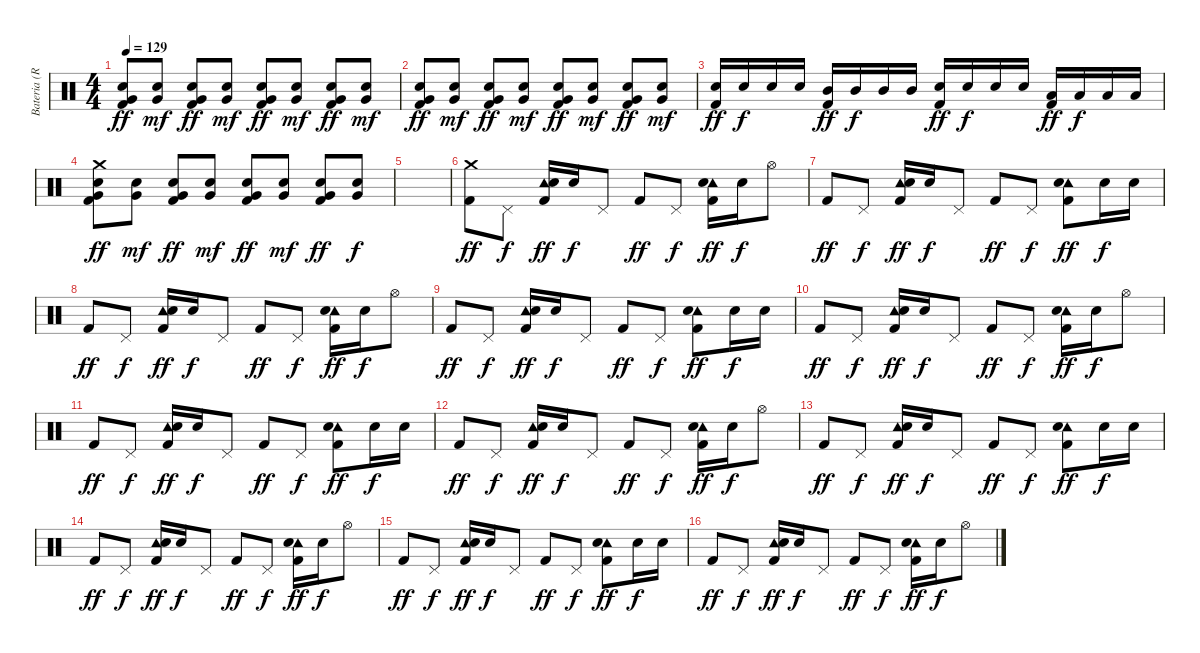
\track ("Bateria (Roy)" "Bateria (R") {instrument percussion}
\staff {score}
\articulation defaults
\ts (4 4)
\tempo 129
\clef neutral
\ks c
("Very Low Tom (hit)" "Electric Snare (hit)" "Kick (hit) 2").8{dy ff} ("Very Low Tom (hit)" "Electric Snare (hit)").8{dy mf} ("Very Low Tom (hit)" "Electric Snare (hit)" "Kick (hit) 2").8{dy ff} ("Very Low Tom (hit)" "Electric Snare (hit)").8{dy mf} ("Very Low Tom (hit)" "Electric Snare (hit)" "Kick (hit) 2").8{dy ff} ("Very Low Tom (hit)" "Electric Snare (hit)").8{dy mf} ("Very Low Tom (hit)" "Electric Snare (hit)" "Kick (hit) 2").8{dy ff} ("Very Low Tom (hit)" "Electric Snare (hit)").8{dy mf} |
("Very Low Tom (hit)" "Electric Snare (hit)" "Kick (hit) 2").8{dy ff} ("Very Low Tom (hit)" "Electric Snare (hit)").8{dy mf} ("Very Low Tom (hit)" "Electric Snare (hit)" "Kick (hit) 2").8{dy ff} ("Very Low Tom (hit)" "Electric Snare (hit)").8{dy mf} ("Very Low Tom (hit)" "Electric Snare (hit)" "Kick (hit) 2").8{dy ff} ("Very Low Tom (hit)" "Electric Snare (hit)").8{dy mf} ("Very Low Tom (hit)" "Electric Snare (hit)" "Kick (hit) 2").8{dy ff} ("Very Low Tom (hit)" "Electric Snare (hit)").8{dy mf} |
("Electric Snare (hit)" "Kick (hit) 2").16{dy ff} "Electric Snare (hit)".16{dy f} "Electric Snare (hit)".16 "Electric Snare (hit)".16 ("Mid Tom (hit)" "Kick (hit) 2").16{dy ff} "Mid Tom (hit)".16{dy f} "Mid Tom (hit)".16 "Mid Tom (hit)".16 ("Electric Snare (hit)" "Kick (hit) 2").16{dy ff} "Electric Snare (hit)".16{dy f} "Electric Snare (hit)".16 "Electric Snare (hit)".16 ("Low Tom (hit)" "Kick (hit) 2").16{dy ff} "Low Tom (hit)".16{dy f} "Low Tom (hit)".16 "Low Tom (hit)".16 |
("Crash medium (hit)" "Very Low Tom (hit)" "Electric Snare (hit)" "Kick (hit) 2").8{dy ff} ("Very Low Tom (hit)" "Electric Snare (hit)").8{dy mf} ("Very Low Tom (hit)" "Electric Snare (hit)" "Kick (hit) 2").8{dy ff} ("Very Low Tom (hit)" "Electric Snare (hit)").8{dy mf} ("Very Low Tom (hit)" "Electric Snare (hit)" "Kick (hit) 2").8{dy ff} ("Very Low Tom (hit)" "Electric Snare (hit)").8{dy mf} ("Very Low Tom (hit)" "Electric Snare (hit)" "Kick (hit) 2").8{dy ff} ("Very Low Tom (hit)" "Electric Snare (hit)").8{dy f} |
|
("Crash medium (hit)" "Kick (hit) 2").8{dy ff} "Pedal Hi-Hat (hit)".8{dy f} ("Tambourine (hit)" "Electric Snare (hit)" "Kick (hit) 2").16{dy ff} "Electric Snare (hit)".16{dy f} "Pedal Hi-Hat (hit)".8 "Kick (hit) 2".8{dy ff} "Pedal Hi-Hat (hit)".8{dy f} ("Tambourine (hit)" "Electric Snare (hit)" "Kick (hit) 2").16{dy ff} "Electric Snare (hit)".16{dy f} "Hi-Hat (open)".8 |
"Kick (hit) 2".8{dy ff} "Pedal Hi-Hat (hit)".8{dy f} ("Tambourine (hit)" "Electric Snare (hit)" "Kick (hit) 2").16{dy ff} "Electric Snare (hit)".16{dy f} "Pedal Hi-Hat (hit)".8 "Kick (hit) 2".8{dy ff} "Pedal Hi-Hat (hit)".8{dy f} ("Tambourine (hit)" "Electric Snare (hit)" "Kick (hit) 2").8{dy ff} "Electric Snare (hit)".16{dy f} "Electric Snare (hit)".16 |
"Kick (hit) 2".8{dy ff} "Pedal Hi-Hat (hit)".8{dy f} ("Tambourine (hit)" "Electric Snare (hit)" "Kick (hit) 2").16{dy ff} "Electric Snare (hit)".16{dy f} "Pedal Hi-Hat (hit)".8 "Kick (hit) 2".8{dy ff} "Pedal Hi-Hat (hit)".8{dy f} ("Tambourine (hit)" "Electric Snare (hit)" "Kick (hit) 2").16{dy ff} "Electric Snare (hit)".16{dy f} "Hi-Hat (open)".8 |
"Kick (hit) 2".8{dy ff} "Pedal Hi-Hat (hit)".8{dy f} ("Tambourine (hit)" "Electric Snare (hit)" "Kick (hit) 2").16{dy ff} "Electric Snare (hit)".16{dy f} "Pedal Hi-Hat (hit)".8 "Kick (hit) 2".8{dy ff} "Pedal Hi-Hat (hit)".8{dy f} ("Tambourine (hit)" "Electric Snare (hit)" "Kick (hit) 2").8{dy ff} "Electric Snare (hit)".16{dy f} "Electric Snare (hit)".16 |
"Kick (hit) 2".8{dy ff} "Pedal Hi-Hat (hit)".8{dy f} ("Tambourine (hit)" "Electric Snare (hit)" "Kick (hit) 2").16{dy ff} "Electric Snare (hit)".16{dy f} "Pedal Hi-Hat (hit)".8 "Kick (hit) 2".8{dy ff} "Pedal Hi-Hat (hit)".8{dy f} ("Tambourine (hit)" "Electric Snare (hit)" "Kick (hit) 2").16{dy ff} "Electric Snare (hit)".16{dy f} "Hi-Hat (open)".8 |
"Kick (hit) 2".8{dy ff} "Pedal Hi-Hat (hit)".8{dy f} ("Tambourine (hit)" "Electric Snare (hit)" "Kick (hit) 2").16{dy ff} "Electric Snare (hit)".16{dy f} "Pedal Hi-Hat (hit)".8 "Kick (hit) 2".8{dy ff} "Pedal Hi-Hat (hit)".8{dy f} ("Tambourine (hit)" "Electric Snare (hit)" "Kick (hit) 2").8{dy ff} "Electric Snare (hit)".16{dy f} "Electric Snare (hit)".16 |
"Kick (hit) 2".8{dy ff} "Pedal Hi-Hat (hit)".8{dy f} ("Tambourine (hit)" "Electric Snare (hit)" "Kick (hit) 2").16{dy ff} "Electric Snare (hit)".16{dy f} "Pedal Hi-Hat (hit)".8 "Kick (hit) 2".8{dy ff} "Pedal Hi-Hat (hit)".8{dy f} ("Tambourine (hit)" "Electric Snare (hit)" "Kick (hit) 2").16{dy ff} "Electric Snare (hit)".16{dy f} "Hi-Hat (open)".8 |
"Kick (hit) 2".8{dy ff} "Pedal Hi-Hat (hit)".8{dy f} ("Tambourine (hit)" "Electric Snare (hit)" "Kick (hit) 2").16{dy ff} "Electric Snare (hit)".16{dy f} "Pedal Hi-Hat (hit)".8 "Kick (hit) 2".8{dy ff} "Pedal Hi-Hat (hit)".8{dy f} ("Tambourine (hit)" "Electric Snare (hit)" "Kick (hit) 2").8{dy ff} "Electric Snare (hit)".16{dy f} "Electric Snare (hit)".16 |
"Kick (hit) 2".8{dy ff} "Pedal Hi-Hat (hit)".8{dy f} ("Tambourine (hit)" "Electric Snare (hit)" "Kick (hit) 2").16{dy ff} "Electric Snare (hit)".16{dy f} "Pedal Hi-Hat (hit)".8 "Kick (hit) 2".8{dy ff} "Pedal Hi-Hat (hit)".8{dy f} ("Tambourine (hit)" "Electric Snare (hit)" "Kick (hit) 2").16{dy ff} "Electric Snare (hit)".16{dy f} "Hi-Hat (open)".8 |
"Kick (hit) 2".8{dy ff} "Pedal Hi-Hat (hit)".8{dy f} ("Tambourine (hit)" "Electric Snare (hit)" "Kick (hit) 2").16{dy ff} "Electric Snare (hit)".16{dy f} "Pedal Hi-Hat (hit)".8 "Kick (hit) 2".8{dy ff} "Pedal Hi-Hat (hit)".8{dy f} ("Tambourine (hit)" "Electric Snare (hit)" "Kick (hit) 2").8{dy ff} "Electric Snare (hit)".16{dy f} "Electric Snare (hit)".16 |
"Kick (hit) 2".8{dy ff} "Pedal Hi-Hat (hit)".8{dy f} ("Tambourine (hit)" "Electric Snare (hit)" "Kick (hit) 2").16{dy ff} "Electric Snare (hit)".16{dy f} "Pedal Hi-Hat (hit)".8 "Kick (hit) 2".8{dy ff} "Pedal Hi-Hat (hit)".8{dy f} ("Tambourine (hit)" "Electric Snare (hit)" "Kick (hit) 2").16{dy ff} "Electric Snare (hit)".16{dy f} "Hi-Hat (open)".8
